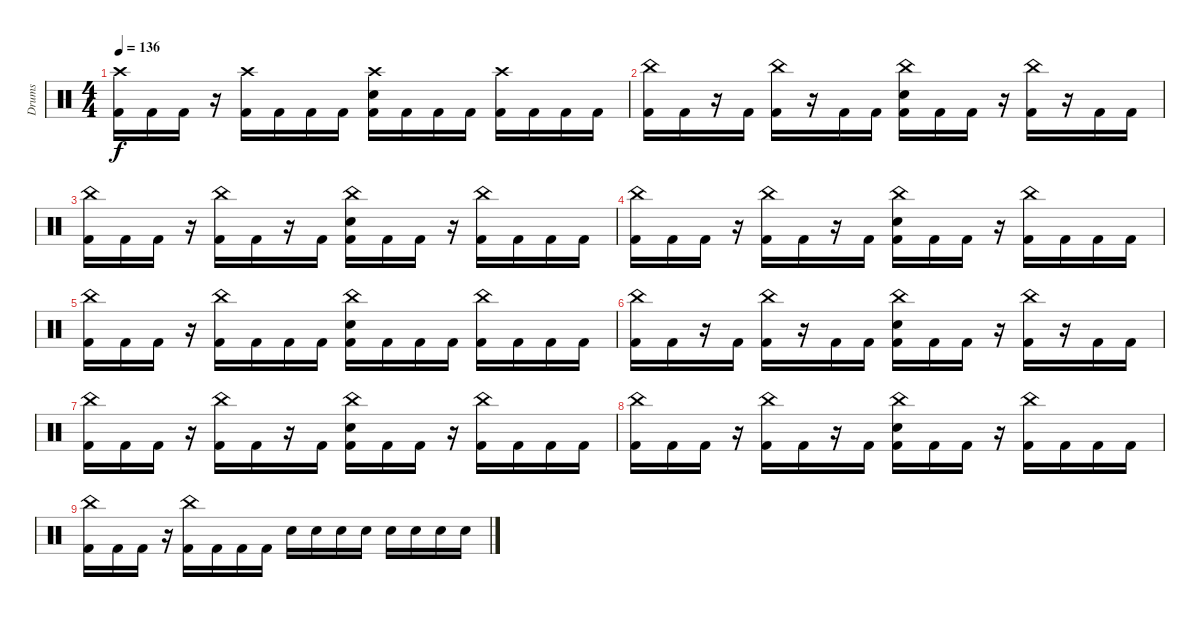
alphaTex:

\track ("Drums" "Drums") {instrument percussion}
\staff {score}
\articulation defaults
\ts (4 4)
\tempo 136
\clef neutral
\ks c
("Crash high (hit)" "Kick (hit) 2").16{dy f} "Kick (hit) 2".16 "Kick (hit) 2".16 r.16 ("Crash high (hit)" "Kick (hit) 2").16 "Kick (hit) 2".16 "Kick (hit) 2".16 "Kick (hit) 2".16 ("Crash high (hit)" "Snare (hit) 2" "Kick (hit) 2").16 "Kick (hit) 2".16 "Kick (hit) 2".16 "Kick (hit) 2".16 ("Crash high (hit)" "Kick (hit) 2").16 "Kick (hit) 2".16 "Kick (hit) 2".16 "Kick (hit) 2".16 |
("China (hit)" "Kick (hit) 2").16 "Kick (hit) 2".16 r.16 "Kick (hit) 2".16 ("China (hit)" "Kick (hit) 2").16 r.16 "Kick (hit) 2".16 "Kick (hit) 2".16 ("China (hit)" "Snare (hit) 2" "Kick (hit) 2").16 "Kick (hit) 2".16 "Kick (hit) 2".16 r.16 ("China (hit)" "Kick (hit) 2").16 r.16 "Kick (hit) 2".16 "Kick (hit) 2".16 |
("China (hit)" "Kick (hit) 2").16 "Kick (hit) 2".16 "Kick (hit) 2".16 r.16 ("China (hit)" "Kick (hit) 2").16 "Kick (hit) 2".16 r.16 "Kick (hit) 2".16 ("China (hit)" "Snare (hit) 2" "Kick (hit) 2").16 "Kick (hit) 2".16 "Kick (hit) 2".16 r.16 ("China (hit)" "Kick (hit) 2").16 "Kick (hit) 2".16 "Kick (hit) 2".16 "Kick (hit) 2".16 |
("China (hit)" "Kick (hit) 2").16 "Kick (hit) 2".16 "Kick (hit) 2".16 r.16 ("China (hit)" "Kick (hit) 2").16 "Kick (hit) 2".16 r.16 "Kick (hit) 2".16 ("China (hit)" "Snare (hit) 2" "Kick (hit) 2").16 "Kick (hit) 2".16 "Kick (hit) 2".16 r.16 ("China (hit)" "Kick (hit) 2").16 "Kick (hit) 2".16 "Kick (hit) 2".16 "Kick (hit) 2".16 |
("China (hit)" "Kick (hit) 2").16 "Kick (hit) 2".16 "Kick (hit) 2".16 r.16 ("China (hit)" "Kick (hit) 2").16 "Kick (hit) 2".16 "Kick (hit) 2".16 "Kick (hit) 2".16 ("China (hit)" "Snare (hit) 2" "Kick (hit) 2").16 "Kick (hit) 2".16 "Kick (hit) 2".16 "Kick (hit) 2".16 ("China (hit)" "Kick (hit) 2").16 "Kick (hit) 2".16 "Kick (hit) 2".16 "Kick (hit) 2".16 |
("China (hit)" "Kick (hit) 2").16 "Kick (hit) 2".16 r.16 "Kick (hit) 2".16 ("China (hit)" "Kick (hit) 2").16 r.16 "Kick (hit) 2".16 "Kick (hit) 2".16 ("China (hit)" "Snare (hit) 2" "Kick (hit) 2").16 "Kick (hit) 2".16 "Kick (hit) 2".16 r.16 ("China (hit)" "Kick (hit) 2").16 r.16 "Kick (hit) 2".16 "Kick (hit) 2".16 |
("China (hit)" "Kick (hit) 2").16 "Kick (hit) 2".16 "Kick (hit) 2".16 r.16 ("China (hit)" "Kick (hit) 2").16 "Kick (hit) 2".16 r.16 "Kick (hit) 2".16 ("China (hit)" "Snare (hit) 2" "Kick (hit) 2").16 "Kick (hit) 2".16 "Kick (hit) 2".16 r.16 ("China (hit)" "Kick (hit) 2").16 "Kick (hit) 2".16 "Kick (hit) 2".16 "Kick (hit) 2".16 |
("China (hit)" "Kick (hit) 2").16 "Kick (hit) 2".16 "Kick (hit) 2".16 r.16 ("China (hit)" "Kick (hit) 2").16 "Kick (hit) 2".16 r.16 "Kick (hit) 2".16 ("China (hit)" "Snare (hit) 2" "Kick (hit) 2").16 "Kick (hit) 2".16 "Kick (hit) 2".16 r.16 ("China (hit)" "Kick (hit) 2").16 "Kick (hit) 2".16 "Kick (hit) 2".16 "Kick (hit) 2".16 |
("China (hit)" "Kick (hit) 2").16 "Kick (hit) 2".16 "Kick (hit) 2".16 r.16 ("China (hit)" "Kick (hit) 2").16 "Kick (hit) 2".16 "Kick (hit) 2".16 "Kick (hit) 2".16 "Snare (hit) 2".16 "Snare (hit) 2".16 "Snare (hit) 2".16 "Snare (hit) 2".16 "Snare (hit) 2".16 "Snare (hit) 2".16 "Snare (hit) 2".16 "Snare (hit) 2".16
